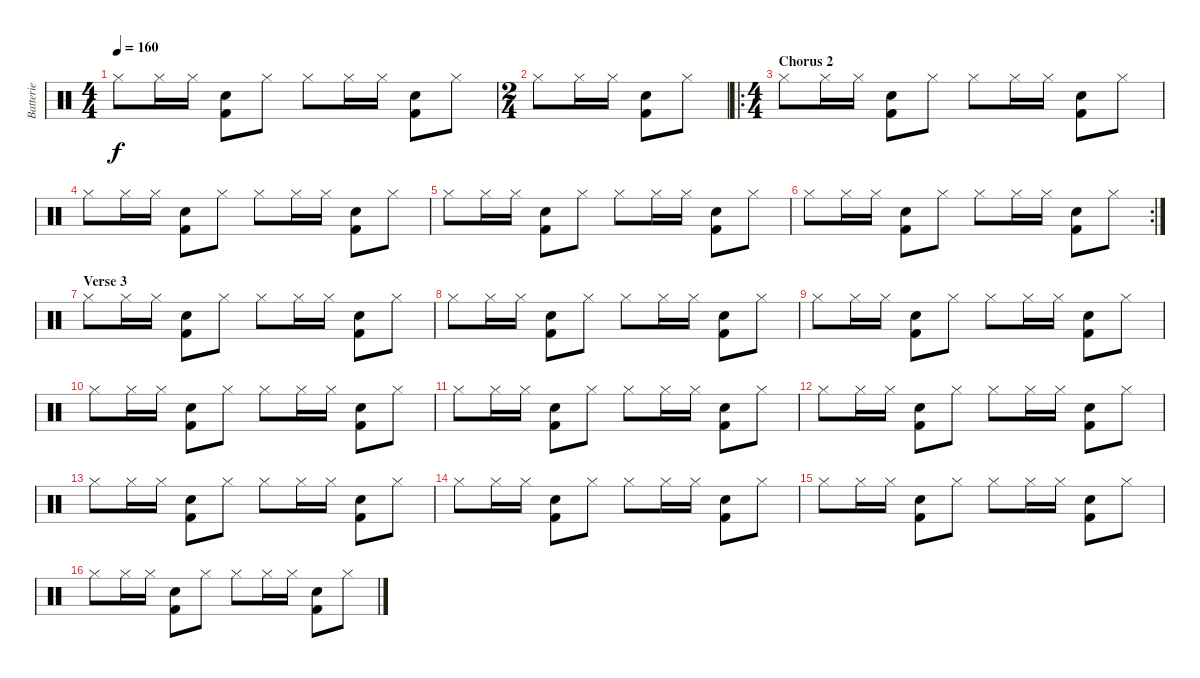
\track ("Batterie" "Batterie") {instrument percussion}
\staff {score}
\articulation defaults
\ts (4 4)
\tempo 160
\clef neutral
\ks c "Hi-Hat (closed)".8{dy f} "Hi-Hat (closed)".16 "Hi-Hat (closed)".16
("Snare (hit) 2" "Kick (hit) 2").8 "Hi-Hat (closed)".8 "Hi-Hat (closed)".8 "Hi-Hat (closed)".16 "Hi-Hat (closed)".16 ("Snare (hit) 2" "Kick (hit) 2").8 "Hi-Hat (closed)".8 |
\ts (2 4)
"Hi-Hat (closed)".8 "Hi-Hat (closed)".16 "Hi-Hat (closed)".16 ("Snare (hit) 2" "Kick (hit) 2").8 "Hi-Hat (closed)".8 |
\ro
\ts (4 4)
\section ("" "Chorus 2")
"Hi-Hat (closed)".8 "Hi-Hat (closed)".16 "Hi-Hat (closed)".16 ("Snare (hit) 2" "Kick (hit) 2").8 "Hi-Hat (closed)".8 "Hi-Hat (closed)".8 "Hi-Hat (closed)".16 "Hi-Hat (closed)".16 ("Snare (hit) 2" "Kick (hit) 2").8 "Hi-Hat (closed)".8 |
"Hi-Hat (closed)".8 "Hi-Hat (closed)".16 "Hi-Hat (closed)".16 ("Snare (hit) 2" "Kick (hit) 2").8 "Hi-Hat (closed)".8 "Hi-Hat (closed)".8 "Hi-Hat (closed)".16 "Hi-Hat (closed)".16 ("Snare (hit) 2" "Kick (hit) 2").8 "Hi-Hat (closed)".8 |
"Hi-Hat (closed)".8 "Hi-Hat (closed)".16 "Hi-Hat (closed)".16 ("Snare (hit) 2" "Kick (hit) 2").8 "Hi-Hat (closed)".8 "Hi-Hat (closed)".8 "Hi-Hat (closed)".16 "Hi-Hat (closed)".16 ("Snare (hit) 2" "Kick (hit) 2").8 "Hi-Hat (closed)".8 |
\rc 2 "Hi-Hat (closed)".8 "Hi-Hat (closed)".16 "Hi-Hat (closed)".16
("Snare (hit) 2" "Kick (hit) 2").8 "Hi-Hat (closed)".8 "Hi-Hat (closed)".8 "Hi-Hat (closed)".16 "Hi-Hat (closed)".16 ("Snare (hit) 2" "Kick (hit) 2").8 "Hi-Hat (closed)".8 |
\section ("" "Verse 3")
"Hi-Hat (closed)".8 "Hi-Hat (closed)".16 "Hi-Hat (closed)".16 ("Snare (hit) 2" "Kick (hit) 2").8 "Hi-Hat (closed)".8 "Hi-Hat (closed)".8 "Hi-Hat (closed)".16 "Hi-Hat (closed)".16 ("Snare (hit) 2" "Kick (hit) 2").8 "Hi-Hat (closed)".8 |
"Hi-Hat (closed)".8 "Hi-Hat (closed)".16 "Hi-Hat (closed)".16 ("Snare (hit) 2" "Kick (hit) 2").8 "Hi-Hat (closed)".8 "Hi-Hat (closed)".8 "Hi-Hat (closed)".16 "Hi-Hat (closed)".16 ("Snare (hit) 2" "Kick (hit) 2").8 "Hi-Hat (closed)".8 |
"Hi-Hat (closed)".8 "Hi-Hat (closed)".16 "Hi-Hat (closed)".16 ("Snare (hit) 2" "Kick (hit) 2").8 "Hi-Hat (closed)".8 "Hi-Hat (closed)".8 "Hi-Hat (closed)".16 "Hi-Hat (closed)".16 ("Snare (hit) 2" "Kick (hit) 2").8 "Hi-Hat (closed)".8 |
"Hi-Hat (closed)".8 "Hi-Hat (closed)".16 "Hi-Hat (closed)".16 ("Snare (hit) 2" "Kick (hit) 2").8 "Hi-Hat (closed)".8 "Hi-Hat (closed)".8 "Hi-Hat (closed)".16 "Hi-Hat (closed)".16 ("Snare (hit) 2" "Kick (hit) 2").8 "Hi-Hat (closed)".8 |
"Hi-Hat (closed)".8 "Hi-Hat (closed)".16 "Hi-Hat (closed)".16 ("Snare (hit) 2" "Kick (hit) 2").8 "Hi-Hat (closed)".8 "Hi-Hat (closed)".8 "Hi-Hat (closed)".16 "Hi-Hat (closed)".16 ("Snare (hit) 2" "Kick (hit) 2").8 "Hi-Hat (closed)".8 |
"Hi-Hat (closed)".8 "Hi-Hat (closed)".16 "Hi-Hat (closed)".16 ("Snare (hit) 2" "Kick (hit) 2").8 "Hi-Hat (closed)".8 "Hi-Hat (closed)".8 "Hi-Hat (closed)".16 "Hi-Hat (closed)".16 ("Snare (hit) 2" "Kick (hit) 2").8 "Hi-Hat (closed)".8 |
"Hi-Hat (closed)".8 "Hi-Hat (closed)".16 "Hi-Hat (closed)".16 ("Snare (hit) 2" "Kick (hit) 2").8 "Hi-Hat (closed)".8 "Hi-Hat (closed)".8 "Hi-Hat (closed)".16 "Hi-Hat (closed)".16 ("Snare (hit) 2" "Kick (hit) 2").8 "Hi-Hat (closed)".8 |
"Hi-Hat (closed)".8 "Hi-Hat (closed)".16 "Hi-Hat (closed)".16 ("Snare (hit) 2" "Kick (hit) 2").8 "Hi-Hat (closed)".8 "Hi-Hat (closed)".8 "Hi-Hat (closed)".16 "Hi-Hat (closed)".16 ("Snare (hit) 2" "Kick (hit) 2").8 "Hi-Hat (closed)".8 |
"Hi-Hat (closed)".8 "Hi-Hat (closed)".16 "Hi-Hat (closed)".16 ("Snare (hit) 2" "Kick (hit) 2").8 "Hi-Hat (closed)".8 "Hi-Hat (closed)".8 "Hi-Hat (closed)".16 "Hi-Hat (closed)".16 ("Snare (hit) 2" "Kick (hit) 2").8 "Hi-Hat (closed)".8 |
"Hi-Hat (closed)".8 "Hi-Hat (closed)".16 "Hi-Hat (closed)".16 ("Snare (hit) 2" "Kick (hit) 2").8 "Hi-Hat (closed)".8 "Hi-Hat (closed)".8 "Hi-Hat (closed)".16 "Hi-Hat (closed)".16 ("Snare (hit) 2" "Kick (hit) 2").8 "Hi-Hat (closed)".8
